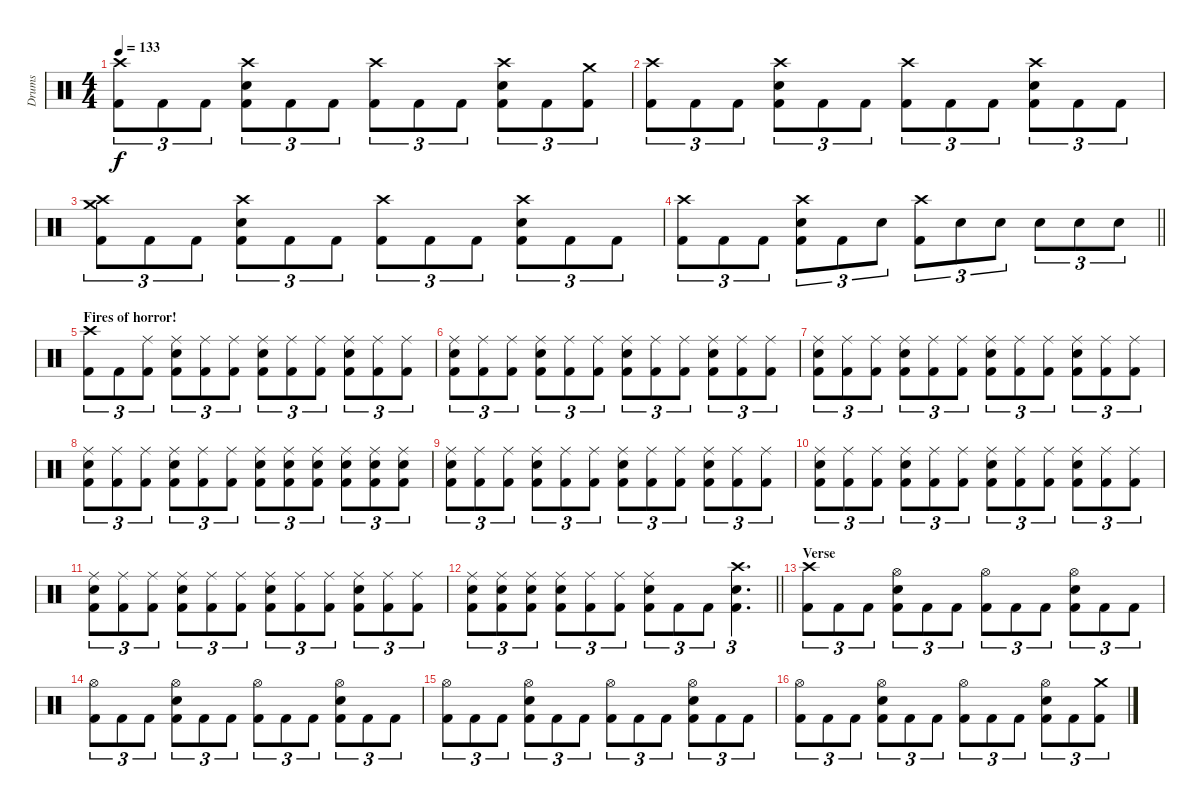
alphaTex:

\track ("Drums" "Drums") {instrument percussion}
\staff {score}
\articulation defaults
\ts (4 4)
\tempo 133
\clef neutral
\ks c
("Crash high (hit)" "Kick (hit) 2").8{tu (3 2) dy f} "Kick (hit) 2".8{tu (3 2)} "Kick (hit) 2".8{tu (3 2)} ("Crash high (hit)" "Snare (hit) 2" "Kick (hit) 2").8{tu (3 2)} "Kick (hit) 2".8{tu (3 2)} "Kick (hit) 2".8{tu (3 2)} ("Crash high (hit)" "Kick (hit) 2").8{tu (3 2)} "Kick (hit) 2".8{tu (3 2)} "Kick (hit) 2".8{tu (3 2)} ("Crash high (hit)" "Snare (hit) 2" "Kick (hit) 2").8{tu (3 2)} "Kick (hit) 2".8{tu (3 2)} ("Crash medium (hit)" "Kick (hit) 2").8{tu (3 2)} |
("Crash high (hit)" "Kick (hit) 2").8{tu (3 2)} "Kick (hit) 2".8{tu (3 2)} "Kick (hit) 2".8{tu (3 2)} ("Crash high (hit)" "Snare (hit) 2" "Kick (hit) 2").8{tu (3 2)} "Kick (hit) 2".8{tu (3 2)} "Kick (hit) 2".8{tu (3 2)} ("Crash high (hit)" "Kick (hit) 2").8{tu (3 2)} "Kick (hit) 2".8{tu (3 2)} "Kick (hit) 2".8{tu (3 2)} ("Crash high (hit)" "Snare (hit) 2" "Kick (hit) 2").8{tu (3 2)} "Kick (hit) 2".8{tu (3 2)} "Kick (hit) 2".8{tu (3 2)} |
("Crash high (hit)" "Crash medium (hit)" "Kick (hit) 2").8{tu (3 2)} "Kick (hit) 2".8{tu (3 2)} "Kick (hit) 2".8{tu (3 2)} ("Crash high (hit)" "Snare (hit) 2" "Kick (hit) 2").8{tu (3 2)} "Kick (hit) 2".8{tu (3 2)} "Kick (hit) 2".8{tu (3 2)} ("Crash high (hit)" "Kick (hit) 2").8{tu (3 2)} "Kick (hit) 2".8{tu (3 2)} "Kick (hit) 2".8{tu (3 2)} ("Crash high (hit)" "Snare (hit) 2" "Kick (hit) 2").8{tu (3 2)} "Kick (hit) 2".8{tu (3 2)} "Kick (hit) 2".8{tu (3 2)} |
\barLineRight lightlight
("Crash high (hit)" "Kick (hit) 2").8{tu (3 2)} "Kick (hit) 2".8{tu (3 2)} "Kick (hit) 2".8{tu (3 2)} ("Crash high (hit)" "Snare (hit) 2" "Kick (hit) 2").8{tu (3 2)} "Kick (hit) 2".8{tu (3 2)} "Snare (hit) 2".8{tu (3 2)} ("Crash high (hit)" "Kick (hit) 2").8{tu (3 2)} "Snare (hit) 2".8{tu (3 2)} "Snare (hit) 2".8{tu (3 2)} "Snare (hit) 2".8{tu (3 2)} "Snare (hit) 2".8{tu (3 2)} "Snare (hit) 2".8{tu (3 2)} |
\section ("" "Fires of horror!")
("Crash high (hit)" "Kick (hit) 2").8{tu (3 2)} "Kick (hit) 2".8{tu (3 2)} ("Ride (middle)" "Kick (hit) 2").8{tu (3 2)} ("Ride (middle)" "Snare (hit) 2" "Kick (hit) 2").8{tu (3 2)} ("Ride (middle)" "Kick (hit) 2").8{tu (3 2)} ("Ride (middle)" "Kick (hit) 2").8{tu (3 2)} ("Ride (middle)" "Snare (hit) 2" "Kick (hit) 2").8{tu (3 2)} ("Ride (middle)" "Kick (hit) 2").8{tu (3 2)} ("Ride (middle)" "Kick (hit) 2").8{tu (3 2)} ("Ride (middle)" "Snare (hit) 2" "Kick (hit) 2").8{tu (3 2)} ("Ride (middle)" "Kick (hit) 2").8{tu (3 2)} ("Ride (middle)" "Kick (hit) 2").8{tu (3 2)} |
("Ride (middle)" "Snare (hit) 2" "Kick (hit) 2").8{tu (3 2)} ("Ride (middle)" "Kick (hit) 2").8{tu (3 2)} ("Ride (middle)" "Kick (hit) 2").8{tu (3 2)} ("Ride (middle)" "Snare (hit) 2" "Kick (hit) 2").8{tu (3 2)} ("Ride (middle)" "Kick (hit) 2").8{tu (3 2)} ("Ride (middle)" "Kick (hit) 2").8{tu (3 2)} ("Ride (middle)" "Snare (hit) 2" "Kick (hit) 2").8{tu (3 2)} ("Ride (middle)" "Kick (hit) 2").8{tu (3 2)} ("Ride (middle)" "Kick (hit) 2").8{tu (3 2)} ("Ride (middle)" "Snare (hit) 2" "Kick (hit) 2").8{tu (3 2)} ("Ride (middle)" "Kick (hit) 2").8{tu (3 2)} ("Ride (middle)" "Kick (hit) 2").8{tu (3 2)} |
("Ride (middle)" "Snare (hit) 2" "Kick (hit) 2").8{tu (3 2)} ("Ride (middle)" "Kick (hit) 2").8{tu (3 2)} ("Ride (middle)" "Kick (hit) 2").8{tu (3 2)} ("Ride (middle)" "Snare (hit) 2" "Kick (hit) 2").8{tu (3 2)} ("Ride (middle)" "Kick (hit) 2").8{tu (3 2)} ("Ride (middle)" "Kick (hit) 2").8{tu (3 2)} ("Ride (middle)" "Snare (hit) 2" "Kick (hit) 2").8{tu (3 2)} ("Ride (middle)" "Kick (hit) 2").8{tu (3 2)} ("Ride (middle)" "Kick (hit) 2").8{tu (3 2)} ("Ride (middle)" "Snare (hit) 2" "Kick (hit) 2").8{tu (3 2)} ("Ride (middle)" "Kick (hit) 2").8{tu (3 2)} ("Ride (middle)" "Kick (hit) 2").8{tu (3 2)} |
("Ride (middle)" "Snare (hit) 2" "Kick (hit) 2").8{tu (3 2)} ("Ride (middle)" "Kick (hit) 2").8{tu (3 2)} ("Ride (middle)" "Kick (hit) 2").8{tu (3 2)} ("Ride (middle)" "Snare (hit) 2" "Kick (hit) 2").8{tu (3 2)} ("Ride (middle)" "Kick (hit) 2").8{tu (3 2)} ("Ride (middle)" "Kick (hit) 2").8{tu (3 2)} ("Ride (middle)" "Snare (hit) 2" "Kick (hit) 2").8{tu (3 2)} ("Ride (middle)" "Snare (hit) 2" "Kick (hit) 2").8{tu (3 2)} ("Ride (middle)" "Snare (hit) 2" "Kick (hit) 2").8{tu (3 2)} ("Ride (middle)" "Snare (hit) 2" "Kick (hit) 2").8{tu (3 2)} ("Ride (middle)" "Snare (hit) 2" "Kick (hit) 2").8{tu (3 2)} ("Ride (middle)" "Snare (hit) 2" "Kick (hit) 2").8{tu (3 2)} |
("Ride (middle)" "Snare (hit) 2" "Kick (hit) 2").8{tu (3 2)} ("Ride (middle)" "Kick (hit) 2").8{tu (3 2)} ("Ride (middle)" "Kick (hit) 2").8{tu (3 2)} ("Ride (middle)" "Snare (hit) 2" "Kick (hit) 2").8{tu (3 2)} ("Ride (middle)" "Kick (hit) 2").8{tu (3 2)} ("Ride (middle)" "Kick (hit) 2").8{tu (3 2)} ("Ride (middle)" "Snare (hit) 2" "Kick (hit) 2").8{tu (3 2)} ("Ride (middle)" "Kick (hit) 2").8{tu (3 2)} ("Ride (middle)" "Kick (hit) 2").8{tu (3 2)} ("Ride (middle)" "Snare (hit) 2" "Kick (hit) 2").8{tu (3 2)} ("Ride (middle)" "Kick (hit) 2").8{tu (3 2)} ("Ride (middle)" "Kick (hit) 2").8{tu (3 2)} |
("Ride (middle)" "Snare (hit) 2" "Kick (hit) 2").8{tu (3 2)} ("Ride (middle)" "Kick (hit) 2").8{tu (3 2)} ("Ride (middle)" "Kick (hit) 2").8{tu (3 2)} ("Ride (middle)" "Snare (hit) 2" "Kick (hit) 2").8{tu (3 2)} ("Ride (middle)" "Kick (hit) 2").8{tu (3 2)} ("Ride (middle)" "Kick (hit) 2").8{tu (3 2)} ("Ride (middle)" "Snare (hit) 2" "Kick (hit) 2").8{tu (3 2)} ("Ride (middle)" "Kick (hit) 2").8{tu (3 2)} ("Ride (middle)" "Kick (hit) 2").8{tu (3 2)} ("Ride (middle)" "Snare (hit) 2" "Kick (hit) 2").8{tu (3 2)} ("Ride (middle)" "Kick (hit) 2").8{tu (3 2)} ("Ride (middle)" "Kick (hit) 2").8{tu (3 2)} |
("Ride (middle)" "Snare (hit) 2" "Kick (hit) 2").8{tu (3 2)} ("Ride (middle)" "Kick (hit) 2").8{tu (3 2)} ("Ride (middle)" "Kick (hit) 2").8{tu (3 2)} ("Ride (middle)" "Snare (hit) 2" "Kick (hit) 2").8{tu (3 2)} ("Ride (middle)" "Kick (hit) 2").8{tu (3 2)} ("Ride (middle)" "Kick (hit) 2").8{tu (3 2)} ("Ride (middle)" "Snare (hit) 2" "Kick (hit) 2").8{tu (3 2)} ("Ride (middle)" "Kick (hit) 2").8{tu (3 2)} ("Ride (middle)" "Kick (hit) 2").8{tu (3 2)} ("Ride (middle)" "Snare (hit) 2" "Kick (hit) 2").8{tu (3 2)} ("Ride (middle)" "Kick (hit) 2").8{tu (3 2)} ("Ride (middle)" "Kick (hit) 2").8{tu (3 2)} |
\barLineRight lightlight
("Ride (middle)" "Snare (hit) 2" "Kick (hit) 2").8{tu (3 2)} ("Ride (middle)" "Snare (hit) 2" "Kick (hit) 2").8{tu (3 2)} ("Ride (middle)" "Snare (hit) 2" "Kick (hit) 2").8{tu (3 2)} ("Ride (middle)" "Snare (hit) 2" "Kick (hit) 2").8{tu (3 2)} ("Ride (middle)" "Kick (hit) 2").8{tu (3 2)} ("Ride (middle)" "Kick (hit) 2").8{tu (3 2)} ("Ride (middle)" "Snare (hit) 2" "Kick (hit) 2").8{tu (3 2)} "Kick (hit) 2".8{tu (3 2)} "Kick (hit) 2".8{tu (3 2)} ("Crash high (hit)" "Snare (hit) 2" "Kick (hit) 2").4{d tu (3 2)} |
\section ("" "Verse")
("Crash high (hit)" "Kick (hit) 2").8{tu (3 2)} "Kick (hit) 2".8{tu (3 2)} "Kick (hit) 2".8{tu (3 2)} ("Hi-Hat (open)" "Snare (hit) 2" "Kick (hit) 2").8{tu (3 2)} "Kick (hit) 2".8{tu (3 2)} "Kick (hit) 2".8{tu (3 2)} ("Hi-Hat (open)" "Kick (hit) 2").8{tu (3 2)} "Kick (hit) 2".8{tu (3 2)} "Kick (hit) 2".8{tu (3 2)} ("Hi-Hat (open)" "Snare (hit) 2" "Kick (hit) 2").8{tu (3 2)} "Kick (hit) 2".8{tu (3 2)} "Kick (hit) 2".8{tu (3 2)} |
("Hi-Hat (open)" "Kick (hit) 2").8{tu (3 2)} "Kick (hit) 2".8{tu (3 2)} "Kick (hit) 2".8{tu (3 2)} ("Hi-Hat (open)" "Snare (hit) 2" "Kick (hit) 2").8{tu (3 2)} "Kick (hit) 2".8{tu (3 2)} "Kick (hit) 2".8{tu (3 2)} ("Hi-Hat (open)" "Kick (hit) 2").8{tu (3 2)} "Kick (hit) 2".8{tu (3 2)} "Kick (hit) 2".8{tu (3 2)} ("Hi-Hat (open)" "Snare (hit) 2" "Kick (hit) 2").8{tu (3 2)} "Kick (hit) 2".8{tu (3 2)} "Kick (hit) 2".8{tu (3 2)} |
("Hi-Hat (open)" "Kick (hit) 2").8{tu (3 2)} "Kick (hit) 2".8{tu (3 2)} "Kick (hit) 2".8{tu (3 2)} ("Hi-Hat (open)" "Snare (hit) 2" "Kick (hit) 2").8{tu (3 2)} "Kick (hit) 2".8{tu (3 2)} "Kick (hit) 2".8{tu (3 2)} ("Hi-Hat (open)" "Kick (hit) 2").8{tu (3 2)} "Kick (hit) 2".8{tu (3 2)} "Kick (hit) 2".8{tu (3 2)} ("Hi-Hat (open)" "Snare (hit) 2" "Kick (hit) 2").8{tu (3 2)} "Kick (hit) 2".8{tu (3 2)} "Kick (hit) 2".8{tu (3 2)} |
("Hi-Hat (open)" "Kick (hit) 2").8{tu (3 2)} "Kick (hit) 2".8{tu (3 2)} "Kick (hit) 2".8{tu (3 2)} ("Hi-Hat (open)" "Snare (hit) 2" "Kick (hit) 2").8{tu (3 2)} "Kick (hit) 2".8{tu (3 2)} "Kick (hit) 2".8{tu (3 2)} ("Hi-Hat (open)" "Kick (hit) 2").8{tu (3 2)} "Kick (hit) 2".8{tu (3 2)} "Kick (hit) 2".8{tu (3 2)} ("Hi-Hat (open)" "Snare (hit) 2" "Kick (hit) 2").8{tu (3 2)} "Kick (hit) 2".8{tu (3 2)} ("Crash medium (hit)" "Kick (hit) 2").8{tu (3 2)}
